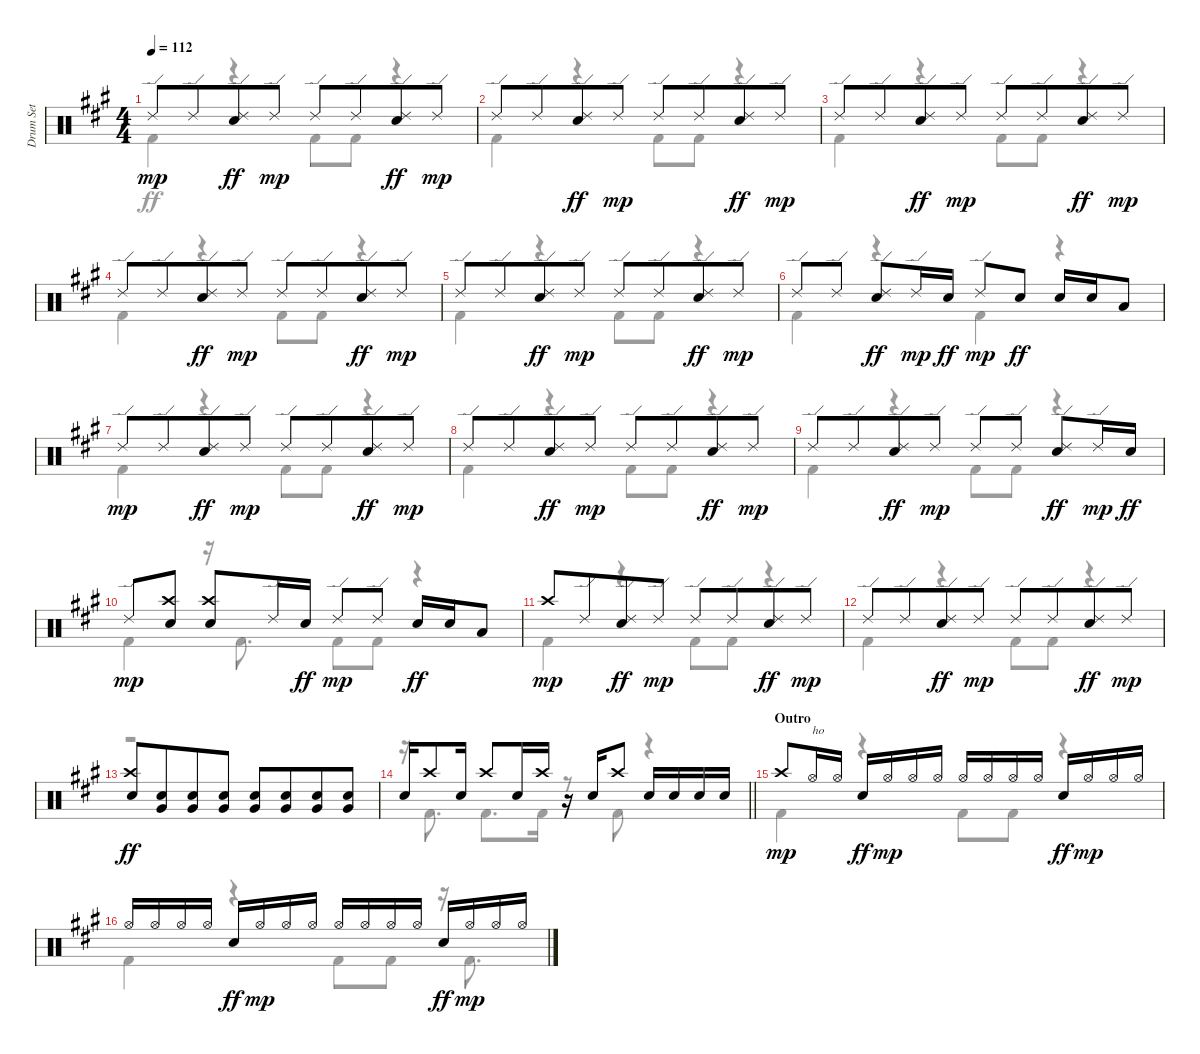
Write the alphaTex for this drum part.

\track ("Drum Set" "Drum Set") {instrument percussion}
\staff {score}
\articulation defaults
\voice
\ts (4 4)
\tempo 112
\clef neutral
\ks f#minor "Ride (edge) 2".8{dy mp} "Ride (edge) 2".8{beam merge}
("Ride (edge) 2" "Electric Snare (hit)").8{dy ff} "Ride (edge) 2".8{dy mp} "Ride (edge) 2".8 "Ride (edge) 2".8{beam merge} ("Ride (edge) 2" "Electric Snare (hit)").8{dy ff} "Ride (edge) 2".8{dy mp} |
"Ride (edge) 2".8 "Ride (edge) 2".8{beam merge} ("Ride (edge) 2" "Electric Snare (hit)").8{dy ff} "Ride (edge) 2".8{dy mp} "Ride (edge) 2".8 "Ride (edge) 2".8{beam merge} ("Ride (edge) 2" "Electric Snare (hit)").8{dy ff} "Ride (edge) 2".8{dy mp} |
"Ride (edge) 2".8 "Ride (edge) 2".8{beam merge} ("Ride (edge) 2" "Electric Snare (hit)").8{dy ff} "Ride (edge) 2".8{dy mp} "Ride (edge) 2".8 "Ride (edge) 2".8{beam merge} ("Ride (edge) 2" "Electric Snare (hit)").8{dy ff} "Ride (edge) 2".8{dy mp} |
"Ride (edge) 2".8 "Ride (edge) 2".8{beam merge} ("Ride (edge) 2" "Electric Snare (hit)").8{dy ff} "Ride (edge) 2".8{dy mp} "Ride (edge) 2".8 "Ride (edge) 2".8{beam merge} ("Ride (edge) 2" "Electric Snare (hit)").8{dy ff} "Ride (edge) 2".8{dy mp} |
"Ride (edge) 2".8 "Ride (edge) 2".8{beam merge} ("Ride (edge) 2" "Electric Snare (hit)").8{dy ff} "Ride (edge) 2".8{dy mp} "Ride (edge) 2".8 "Ride (edge) 2".8{beam merge} ("Ride (edge) 2" "Electric Snare (hit)").8{dy ff} "Ride (edge) 2".8{dy mp} |
"Ride (edge) 2".8 "Ride (edge) 2".8{beam split} ("Ride (edge) 2" "Electric Snare (hit)").8{dy ff} "Ride (edge) 2".16{dy mp} "Electric Snare (hit)".16{dy ff} "Ride (edge) 2".8{dy mp} "Electric Snare (hit)".8{dy ff} "Electric Snare (hit)".16 "Electric Snare (hit)".16 "Low Tom (hit)".8 |
"Ride (edge) 2".8{dy mp} "Ride (edge) 2".8{beam merge} ("Ride (edge) 2" "Electric Snare (hit)").8{dy ff} "Ride (edge) 2".8{dy mp} "Ride (edge) 2".8 "Ride (edge) 2".8{beam merge} ("Ride (edge) 2" "Electric Snare (hit)").8{dy ff} "Ride (edge) 2".8{dy mp} |
"Ride (edge) 2".8 "Ride (edge) 2".8{beam merge} ("Ride (edge) 2" "Electric Snare (hit)").8{dy ff} "Ride (edge) 2".8{dy mp} "Ride (edge) 2".8 "Ride (edge) 2".8{beam merge} ("Ride (edge) 2" "Electric Snare (hit)").8{dy ff} "Ride (edge) 2".8{dy mp} |
"Ride (edge) 2".8 "Ride (edge) 2".8{beam merge} ("Ride (edge) 2" "Electric Snare (hit)").8{dy ff} "Ride (edge) 2".8{dy mp} "Ride (edge) 2".8 "Ride (edge) 2".8{beam split} ("Ride (edge) 2" "Electric Snare (hit)").8{dy ff} "Ride (edge) 2".16{dy mp} "Electric Snare (hit)".16{dy ff} |
"Ride (edge) 2".8{dy mp} ("Electric Snare (hit)" "Crash high (hit)").8 ("Electric Snare (hit)" "Crash high (hit)").8 "Ride (edge) 2".16 "Electric Snare (hit)".16{dy ff} "Ride (edge) 2".8{dy mp} "Ride (edge) 2".8 "Electric Snare (hit)".16{dy ff} "Electric Snare (hit)".16 "Low Tom (hit)".8 |
"Crash high (hit)".8{dy mp} "Ride (edge) 2".8{beam merge} ("Ride (edge) 2" "Electric Snare (hit)").8{dy ff} "Ride (edge) 2".8{dy mp} "Ride (edge) 2".8 "Ride (edge) 2".8{beam merge} ("Ride (edge) 2" "Electric Snare (hit)").8{dy ff} "Ride (edge) 2".8{dy mp} |
"Ride (edge) 2".8 "Ride (edge) 2".8{beam merge} ("Ride (edge) 2" "Electric Snare (hit)").8{dy ff} "Ride (edge) 2".8{dy mp} "Ride (edge) 2".8 "Ride (edge) 2".8{beam merge} ("Ride (edge) 2" "Electric Snare (hit)").8{dy ff} "Ride (edge) 2".8{dy mp} |
("Crash high (hit)" "Electric Snare (hit)").8{dy ff} ("Electric Snare (hit)" "Very Low Tom (hit)").8{volume 2 beam merge} ("Electric Snare (hit)" "Very Low Tom (hit)").8 ("Electric Snare (hit)" "Very Low Tom (hit)").8 ("Electric Snare (hit)" "Very Low Tom (hit)").8{volume 13} ("Electric Snare (hit)" "Very Low Tom (hit)").8{beam merge} ("Electric Snare (hit)" "Very Low Tom (hit)").8 ("Electric Snare (hit)" "Very Low Tom (hit)").8 |
\barLineRight lightlight "Electric Snare (hit)".16 "Crash high (hit)".8 "Electric Snare (hit)".16 "Crash high (hit)".8 "Electric Snare (hit)".16 "Crash high (hit)".16
r.16 "Electric Snare (hit)".16 "Crash high (hit)".8 "Electric Snare (hit)".16 "Electric Snare (hit)".16 "Electric Snare (hit)".16 "Electric Snare (hit)".16 |
\section ("" "Outro")
"Crash high (hit)".8{dy mp} "Hi-Hat (open)".16{txt "ho"} "Hi-Hat (open)".16 "Electric Snare (hit)".16{dy ff} "Hi-Hat (open)".16{dy mp} "Hi-Hat (open)".16 "Hi-Hat (open)".16 "Hi-Hat (open)".16 "Hi-Hat (open)".16 "Hi-Hat (open)".16 "Hi-Hat (open)".16 "Electric Snare (hit)".16{dy ff} "Hi-Hat (open)".16{dy mp} "Hi-Hat (open)".16 "Hi-Hat (open)".16 |
"Hi-Hat (open)".16 "Hi-Hat (open)".16 "Hi-Hat (open)".16 "Hi-Hat (open)".16 "Electric Snare (hit)".16{dy ff} "Hi-Hat (open)".16{dy mp} "Hi-Hat (open)".16 "Hi-Hat (open)".16 "Hi-Hat (open)".16 "Hi-Hat (open)".16 "Hi-Hat (open)".16 "Hi-Hat (open)".16 "Electric Snare (hit)".16{dy ff} "Hi-Hat (open)".16{dy mp} "Hi-Hat (open)".16 "Hi-Hat (open)".16
\voice
\clef neutral
\ottava regular
\simile none
\ks f#minor "Kick (hit) 2".4{dy ff}
r.4 "Kick (hit) 2".8 "Kick (hit) 2".8 r.4 |
"Kick (hit) 2".4 r.4 "Kick (hit) 2".8 "Kick (hit) 2".8 r.4 |
"Kick (hit) 2".4 r.4 "Kick (hit) 2".8 "Kick (hit) 2".8 r.4 |
"Kick (hit) 2".4 r.4 "Kick (hit) 2".8 "Kick (hit) 2".8 r.4 |
"Kick (hit) 2".4 r.4 "Kick (hit) 2".8 "Kick (hit) 2".8 r.4 |
"Kick (hit) 2".4 r.4 "Kick (hit) 2".4 r.4 |
"Kick (hit) 2".4 r.4 "Kick (hit) 2".8 "Kick (hit) 2".8 r.4 |
"Kick (hit) 2".4 r.4 "Kick (hit) 2".8 "Kick (hit) 2".8 r.4 |
"Kick (hit) 2".4 r.4 "Kick (hit) 2".8 "Kick (hit) 2".8 r.4 |
"Kick (hit) 2".4 r.16 "Kick (hit) 2".8{d} "Kick (hit) 2".8 "Kick (hit) 2".8 r.4 |
"Kick (hit) 2".4 r.4 "Kick (hit) 2".8 "Kick (hit) 2".8 r.4 |
"Kick (hit) 2".4 r.4 "Kick (hit) 2".8 "Kick (hit) 2".8 r.4 |
r.1 |
\barLineRight lightlight
r.16 "Kick (hit) 2".8{d} "Kick (hit) 2".8{d} "Kick (hit) 2".16 r.8 "Kick (hit) 2".8 r.4 |
"Kick (hit) 2".4 r.4 "Kick (hit) 2".8 "Kick (hit) 2".8 r.4 |
"Kick (hit) 2".4 r.4 "Kick (hit) 2".8 "Kick (hit) 2".8 r.16 "Kick (hit) 2".8{d}
